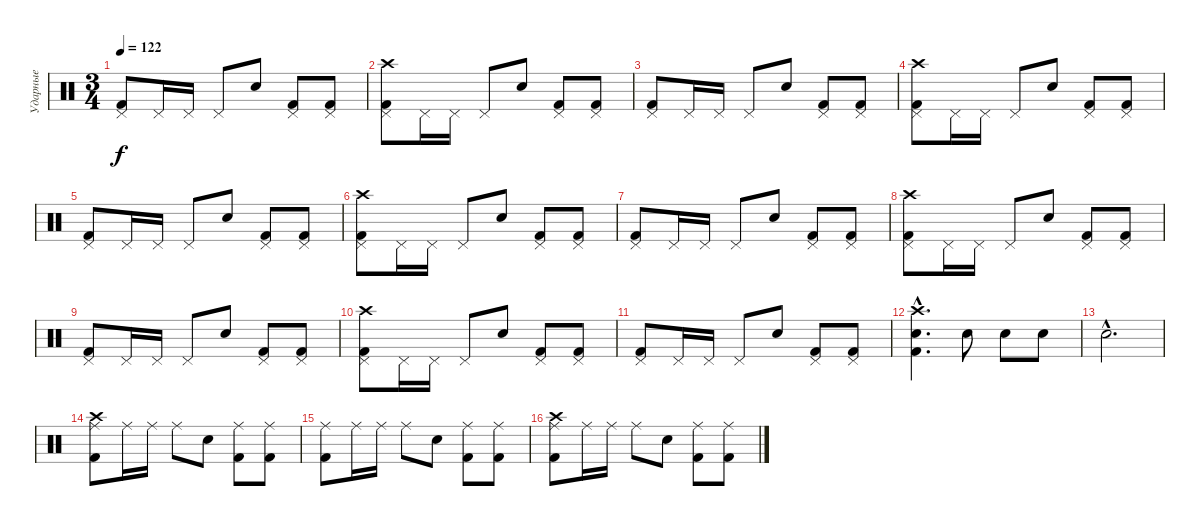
\track ("Ударные" "Ударные") {instrument percussion}
\staff {score}
\articulation defaults
\ts (3 4)
\tempo 122
\clef neutral
\ks c
("Kick (hit) 2" "Pedal Hi-Hat (hit)").8{dy f} "Pedal Hi-Hat (hit)".16 "Pedal Hi-Hat (hit)".16 "Pedal Hi-Hat (hit)".8 "Electric Snare (hit)".8 ("Kick (hit) 2" "Pedal Hi-Hat (hit)").8 ("Kick (hit) 2" "Pedal Hi-Hat (hit)").8 |
("Crash high (hit)" "Kick (hit) 2" "Pedal Hi-Hat (hit)").8 "Pedal Hi-Hat (hit)".16 "Pedal Hi-Hat (hit)".16 "Pedal Hi-Hat (hit)".8 "Electric Snare (hit)".8 ("Kick (hit) 2" "Pedal Hi-Hat (hit)").8 ("Kick (hit) 2" "Pedal Hi-Hat (hit)").8 |
("Kick (hit) 2" "Pedal Hi-Hat (hit)").8 "Pedal Hi-Hat (hit)".16 "Pedal Hi-Hat (hit)".16 "Pedal Hi-Hat (hit)".8 "Electric Snare (hit)".8 ("Kick (hit) 2" "Pedal Hi-Hat (hit)").8 ("Kick (hit) 2" "Pedal Hi-Hat (hit)").8 |
("Crash high (hit)" "Kick (hit) 2" "Pedal Hi-Hat (hit)").8 "Pedal Hi-Hat (hit)".16 "Pedal Hi-Hat (hit)".16 "Pedal Hi-Hat (hit)".8 "Electric Snare (hit)".8 ("Kick (hit) 2" "Pedal Hi-Hat (hit)").8 ("Kick (hit) 2" "Pedal Hi-Hat (hit)").8 |
("Kick (hit) 2" "Pedal Hi-Hat (hit)").8 "Pedal Hi-Hat (hit)".16 "Pedal Hi-Hat (hit)".16 "Pedal Hi-Hat (hit)".8 "Electric Snare (hit)".8 ("Kick (hit) 2" "Pedal Hi-Hat (hit)").8 ("Kick (hit) 2" "Pedal Hi-Hat (hit)").8 |
("Crash high (hit)" "Kick (hit) 2" "Pedal Hi-Hat (hit)").8 "Pedal Hi-Hat (hit)".16 "Pedal Hi-Hat (hit)".16 "Pedal Hi-Hat (hit)".8 "Electric Snare (hit)".8 ("Kick (hit) 2" "Pedal Hi-Hat (hit)").8 ("Kick (hit) 2" "Pedal Hi-Hat (hit)").8 |
("Kick (hit) 2" "Pedal Hi-Hat (hit)").8 "Pedal Hi-Hat (hit)".16 "Pedal Hi-Hat (hit)".16 "Pedal Hi-Hat (hit)".8 "Electric Snare (hit)".8 ("Kick (hit) 2" "Pedal Hi-Hat (hit)").8 ("Kick (hit) 2" "Pedal Hi-Hat (hit)").8 |
("Crash high (hit)" "Kick (hit) 2" "Pedal Hi-Hat (hit)").8 "Pedal Hi-Hat (hit)".16 "Pedal Hi-Hat (hit)".16 "Pedal Hi-Hat (hit)".8 "Electric Snare (hit)".8 ("Kick (hit) 2" "Pedal Hi-Hat (hit)").8 ("Kick (hit) 2" "Pedal Hi-Hat (hit)").8 |
("Kick (hit) 2" "Pedal Hi-Hat (hit)").8 "Pedal Hi-Hat (hit)".16 "Pedal Hi-Hat (hit)".16 "Pedal Hi-Hat (hit)".8 "Electric Snare (hit)".8 ("Kick (hit) 2" "Pedal Hi-Hat (hit)").8 ("Kick (hit) 2" "Pedal Hi-Hat (hit)").8 |
("Crash high (hit)" "Kick (hit) 2" "Pedal Hi-Hat (hit)").8 "Pedal Hi-Hat (hit)".16 "Pedal Hi-Hat (hit)".16 "Pedal Hi-Hat (hit)".8 "Electric Snare (hit)".8 ("Kick (hit) 2" "Pedal Hi-Hat (hit)").8 ("Kick (hit) 2" "Pedal Hi-Hat (hit)").8 |
("Kick (hit) 2" "Pedal Hi-Hat (hit)").8 "Pedal Hi-Hat (hit)".16 "Pedal Hi-Hat (hit)".16 "Pedal Hi-Hat (hit)".8 "Electric Snare (hit)".8 ("Kick (hit) 2" "Pedal Hi-Hat (hit)").8 ("Kick (hit) 2" "Pedal Hi-Hat (hit)").8 |
("Kick (hit) 2"{hac} "Crash high (hit)"{hac} "Electric Snare (hit)"{hac}).4{d} "Electric Snare (hit)".8 "Electric Snare (hit)".8 "Electric Snare (hit)".8 |
"Electric Snare (hit)"{hac}.2{d} |
("Crash high (hit)" "Kick (hit) 2" "Ride (middle)").8 "Ride (middle)".16 "Ride (middle)".16 "Ride (middle)".8 "Electric Snare (hit)".8 ("Kick (hit) 2" "Ride (middle)").8 ("Kick (hit) 2" "Ride (middle)").8 |
("Kick (hit) 2" "Ride (middle)").8 "Ride (middle)".16 "Ride (middle)".16 "Ride (middle)".8 "Electric Snare (hit)".8 ("Kick (hit) 2" "Ride (middle)").8 ("Kick (hit) 2" "Ride (middle)").8 |
("Crash high (hit)" "Kick (hit) 2" "Ride (middle)").8 "Ride (middle)".16 "Ride (middle)".16 "Ride (middle)".8 "Electric Snare (hit)".8 ("Kick (hit) 2" "Ride (middle)").8 ("Kick (hit) 2" "Ride (middle)").8
